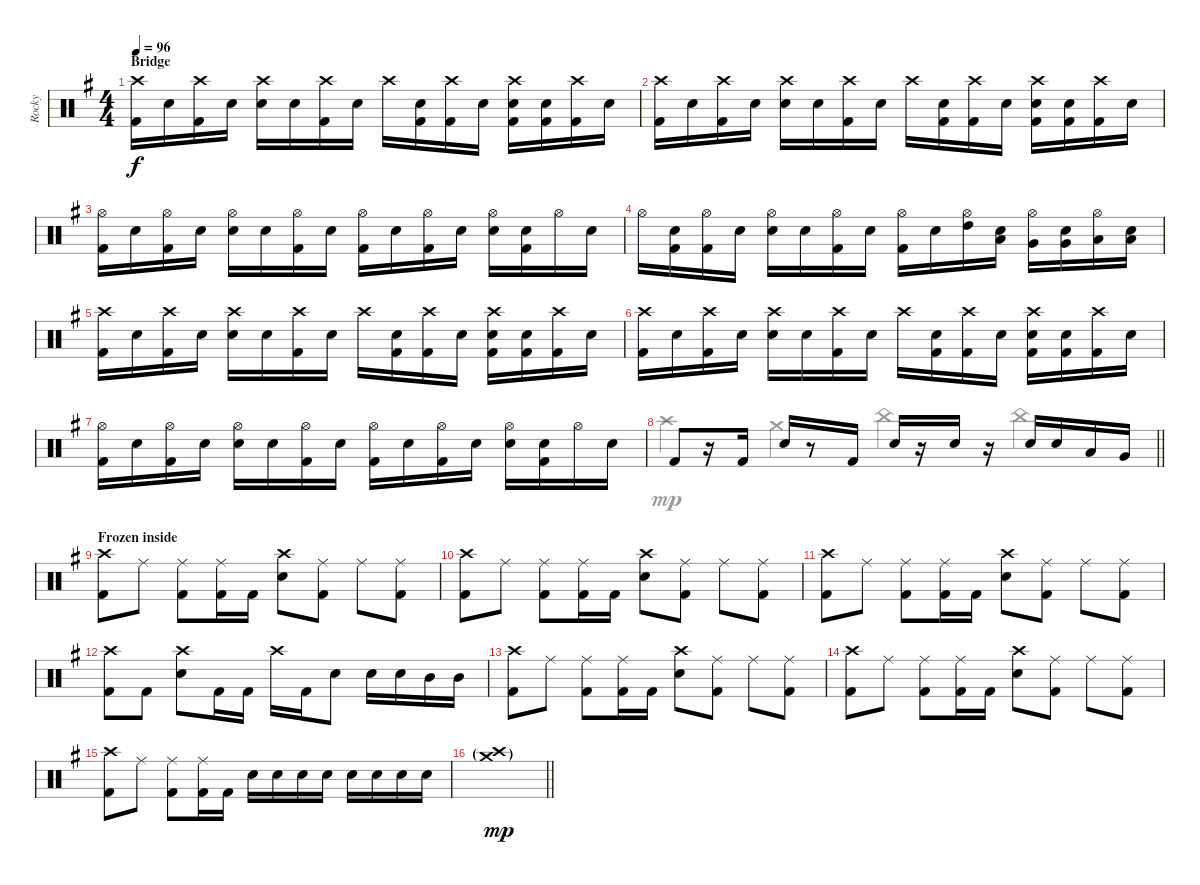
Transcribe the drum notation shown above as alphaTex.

\track ("Rocky" "Rocky") {instrument percussion}
\staff {score}
\articulation defaults
\voice
\ts (4 4)
\section ("" "Bridge")
\tempo 96
\clef neutral
\ks g
("Crash high (hit)" "Kick (hit) 2").16{dy f} "Snare (hit)".16 ("Crash high (hit)" "Kick (hit) 2").16 "Snare (hit)".16 ("Crash high (hit)" "Snare (hit) 2").16 "Snare (hit)".16 ("Crash high (hit)" "Kick (hit) 2").16 "Snare (hit)".16 "Crash high (hit)".16 ("Snare (hit)" "Kick (hit) 2").16 ("Crash high (hit)" "Kick (hit) 2").16 "Snare (hit)".16 ("Crash high (hit)" "Snare (hit) 2" "Kick (hit) 2").16 ("Snare (hit)" "Kick (hit) 2").16 ("Crash high (hit)" "Kick (hit) 2").16 "Snare (hit)".16 |
("Crash high (hit)" "Kick (hit) 2").16 "Snare (hit)".16 ("Crash high (hit)" "Kick (hit) 2").16 "Snare (hit)".16 ("Crash high (hit)" "Snare (hit) 2").16 "Snare (hit)".16 ("Crash high (hit)" "Kick (hit) 2").16 "Snare (hit)".16 "Crash high (hit)".16 ("Snare (hit)" "Kick (hit) 2").16 ("Crash high (hit)" "Kick (hit) 2").16 "Snare (hit)".16 ("Crash high (hit)" "Snare (hit) 2" "Kick (hit) 2").16 ("Snare (hit)" "Kick (hit) 2").16 ("Crash high (hit)" "Kick (hit) 2").16 "Snare (hit)".16 |
("Hi-Hat (open)" "Kick (hit) 2").16 "Snare (hit)".16 ("Hi-Hat (open)" "Kick (hit) 2").16 "Snare (hit)".16 ("Hi-Hat (open)" "Snare (hit) 2").16 "Snare (hit)".16 ("Hi-Hat (open)" "Kick (hit) 2").16 "Snare (hit)".16 ("Hi-Hat (open)" "Kick (hit) 2").16 "Snare (hit)".16 ("Hi-Hat (open)" "Kick (hit) 2").16 "Snare (hit)".16 ("Hi-Hat (open)" "Snare (hit) 2").16 ("Snare (hit)" "Kick (hit) 2").16 "Hi-Hat (open)".16 "Snare (hit)".16 |
"Hi-Hat (open)".16 ("Snare (hit)" "Kick (hit) 2").16 ("Hi-Hat (open)" "Kick (hit) 2").16 "Snare (hit)".16 ("Hi-Hat (open)" "Snare (hit) 2").16 "Snare (hit)".16 ("Hi-Hat (open)" "Kick (hit) 2").16 "Snare (hit)".16 ("Hi-Hat (open)" "Kick (hit) 2").16 "Snare (hit)".16 ("Hi-Hat (open)" "High Tom (hit)").16 ("Snare (hit)" "Low Tom (hit)").16 ("Hi-Hat (open)" "Very Low Tom (hit)").16 ("Snare (hit)" "Very Low Tom (hit)").16 ("Hi-Hat (open)" "Low Floor Tom (hit)").16 ("Snare (hit)" "Low Floor Tom (hit)").16 |
("Crash high (hit)" "Kick (hit) 2").16 "Snare (hit)".16 ("Crash high (hit)" "Kick (hit) 2").16 "Snare (hit)".16 ("Crash high (hit)" "Snare (hit) 2").16 "Snare (hit)".16 ("Crash high (hit)" "Kick (hit) 2").16 "Snare (hit)".16 "Crash high (hit)".16 ("Snare (hit)" "Kick (hit) 2").16 ("Crash high (hit)" "Kick (hit) 2").16 "Snare (hit)".16 ("Crash high (hit)" "Snare (hit) 2" "Kick (hit) 2").16 ("Snare (hit)" "Kick (hit) 2").16 ("Crash high (hit)" "Kick (hit) 2").16 "Snare (hit)".16 |
("Crash high (hit)" "Kick (hit) 2").16 "Snare (hit)".16 ("Crash high (hit)" "Kick (hit) 2").16 "Snare (hit)".16 ("Crash high (hit)" "Snare (hit) 2").16 "Snare (hit)".16 ("Crash high (hit)" "Kick (hit) 2").16 "Snare (hit)".16 "Crash high (hit)".16 ("Snare (hit)" "Kick (hit) 2").16 ("Crash high (hit)" "Kick (hit) 2").16 "Snare (hit)".16 ("Crash high (hit)" "Snare (hit) 2" "Kick (hit) 2").16 ("Snare (hit)" "Kick (hit) 2").16 ("Crash high (hit)" "Kick (hit) 2").16 "Snare (hit)".16 |
("Hi-Hat (open)" "Kick (hit) 2").16 "Snare (hit)".16 ("Hi-Hat (open)" "Kick (hit) 2").16 "Snare (hit)".16 ("Hi-Hat (open)" "Snare (hit) 2").16 "Snare (hit)".16 ("Hi-Hat (open)" "Kick (hit) 2").16 "Snare (hit)".16 ("Hi-Hat (open)" "Kick (hit) 2").16 "Snare (hit)".16 ("Hi-Hat (open)" "Kick (hit) 2").16 "Snare (hit)".16 ("Hi-Hat (open)" "Snare (hit) 2").16 ("Snare (hit)" "Kick (hit) 2").16 "Hi-Hat (open)".16 "Snare (hit)".16 |
\barLineRight lightlight "Kick (hit) 2".8
r.16 "Kick (hit) 2".16 "Snare (hit) 2".16 r.8 "Kick (hit) 2".16 "Snare (hit) 2".16 r.16 "Snare (hit) 2".16 r.16 "Snare (hit) 2".16 "Snare (hit) 2".16 "Low Tom (hit)".16 "Very Low Tom (hit)".16 |
\section ("" "Frozen inside")
("Crash high (hit)" "Kick (hit) 2").8 "Ride (middle)".8 ("Ride (middle)" "Kick (hit) 2").8 ("Ride (middle)" "Kick (hit) 2").16 "Kick (hit) 2".16 ("Crash high (hit)" "Snare (hit) 2").8 ("Ride (middle)" "Kick (hit) 2").8 "Ride (middle)".8 ("Ride (middle)" "Kick (hit) 2").8 |
("Crash high (hit)" "Kick (hit) 2").8 "Ride (middle)".8 ("Ride (middle)" "Kick (hit) 2").8 ("Ride (middle)" "Kick (hit) 2").16 "Kick (hit) 2".16 ("Crash high (hit)" "Snare (hit) 2").8 ("Ride (middle)" "Kick (hit) 2").8 "Ride (middle)".8 ("Ride (middle)" "Kick (hit) 2").8 |
("Crash high (hit)" "Kick (hit) 2").8 "Ride (middle)".8 ("Ride (middle)" "Kick (hit) 2").8 ("Ride (middle)" "Kick (hit) 2").16 "Kick (hit) 2".16 ("Crash high (hit)" "Snare (hit) 2").8 ("Ride (middle)" "Kick (hit) 2").8 "Ride (middle)".8 ("Ride (middle)" "Kick (hit) 2").8 |
("Crash high (hit)" "Kick (hit) 2").8 "Kick (hit) 2".8 ("Crash high (hit)" "Snare (hit) 2").8 "Kick (hit) 2".16 "Kick (hit) 2".16 "Crash high (hit)".16 "Kick (hit) 2".16 "Snare (hit) 2".8 "Snare (hit) 2".16 "Snare (hit) 2".16 "Mid Tom (hit)".16 "Mid Tom (hit)".16 |
("Crash high (hit)" "Kick (hit) 2").8 "Ride (middle)".8 ("Ride (middle)" "Kick (hit) 2").8 ("Ride (middle)" "Kick (hit) 2").16 "Kick (hit) 2".16 ("Crash high (hit)" "Snare (hit) 2").8 ("Ride (middle)" "Kick (hit) 2").8 "Ride (middle)".8 ("Ride (middle)" "Kick (hit) 2").8 |
("Crash high (hit)" "Kick (hit) 2").8 "Ride (middle)".8 ("Ride (middle)" "Kick (hit) 2").8 ("Ride (middle)" "Kick (hit) 2").16 "Kick (hit) 2".16 ("Crash high (hit)" "Snare (hit) 2").8 ("Ride (middle)" "Kick (hit) 2").8 "Ride (middle)".8 ("Ride (middle)" "Kick (hit) 2").8 |
("Crash high (hit)" "Kick (hit) 2").8 "Ride (middle)".8 ("Ride (middle)" "Kick (hit) 2").8 ("Ride (middle)" "Kick (hit) 2").16 "Kick (hit) 2".16 "Snare (hit) 2".16 "Snare (hit) 2".16 "Snare (hit) 2".16 "Snare (hit) 2".16 "Snare (hit) 2".16{bd 240} "Snare (hit) 2".16 "Snare (hit) 2".16 "Snare (hit) 2".16 |
\barLineRight lightlight
("Crash high (hit)"{g} "Crash medium (hit)"{g}).1{dy mp}
\voice
\clef neutral
\ottava regular
\simile none
\ks g
|
|
|
|
|
|
|
\barLineRight lightlight "Crash high (hit)".4 "Crash medium (hit)".4 "China (hit)".4 "China (hit)".4
|
|
|
|
|
|
|
|
\barLineRight lightlight
